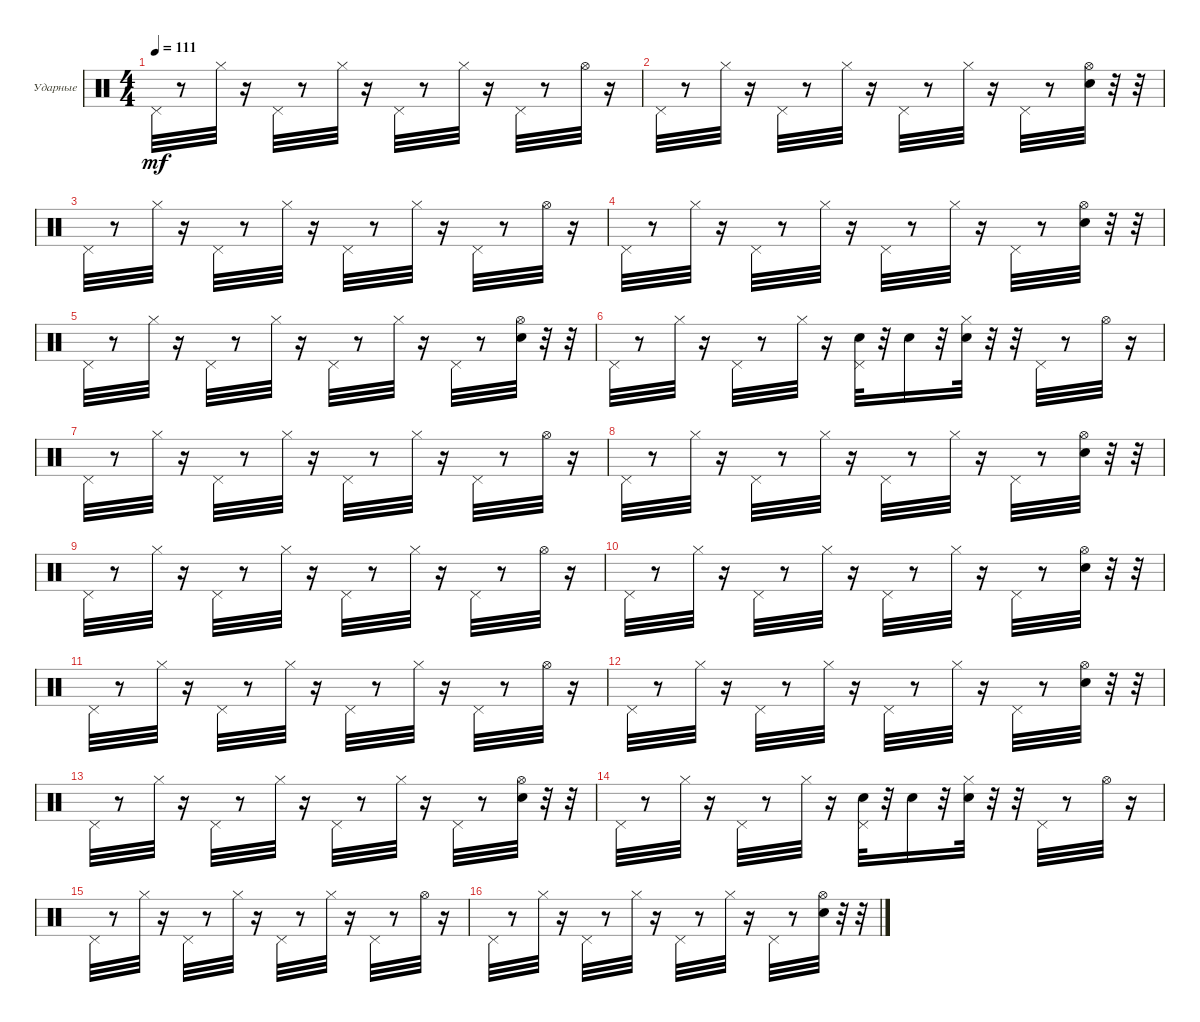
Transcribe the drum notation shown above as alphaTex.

\bracketExtendMode groupsimilarinstruments
\firstSystemTrackNameOrientation horizontal
\otherSystemsTrackNameOrientation horizontal
\track ("Ударные" "Ударные") {instrument percussion}
\staff {score}
\articulation defaults
\ts (4 4)
\tempo 111
\clef neutral
\ks c "Pedal Hi-Hat (hit)".32{dy mf}
r.8 "Hi-Hat (closed)".32 r.16 "Pedal Hi-Hat (hit)".32 r.8 "Hi-Hat (closed)".32 r.16 "Pedal Hi-Hat (hit)".32 r.8 "Hi-Hat (closed)".32 r.16 "Pedal Hi-Hat (hit)".32 r.8 "Hi-Hat (open)".32 r.16 |
"Pedal Hi-Hat (hit)".32 r.8 "Hi-Hat (closed)".32 r.16 "Pedal Hi-Hat (hit)".32 r.8 "Hi-Hat (closed)".32 r.16 "Pedal Hi-Hat (hit)".32 r.8 "Hi-Hat (closed)".32 r.16 "Pedal Hi-Hat (hit)".32 r.8 ("Hi-Hat (open)" "Snare (hit) 2").32 r.32 r.32 |
"Pedal Hi-Hat (hit)".32 r.8 "Hi-Hat (closed)".32 r.16 "Pedal Hi-Hat (hit)".32 r.8 "Hi-Hat (closed)".32 r.16 "Pedal Hi-Hat (hit)".32 r.8 "Hi-Hat (closed)".32 r.16 "Pedal Hi-Hat (hit)".32 r.8 "Hi-Hat (open)".32 r.16 |
"Pedal Hi-Hat (hit)".32 r.8 "Hi-Hat (closed)".32 r.16 "Pedal Hi-Hat (hit)".32 r.8 "Hi-Hat (closed)".32 r.16 "Pedal Hi-Hat (hit)".32 r.8 "Hi-Hat (closed)".32 r.16 "Pedal Hi-Hat (hit)".32 r.8 ("Snare (hit) 2" "Hi-Hat (open)").32 r.32 r.32 |
"Pedal Hi-Hat (hit)".32 r.8 "Hi-Hat (closed)".32 r.16 "Pedal Hi-Hat (hit)".32 r.8 "Hi-Hat (closed)".32 r.16 "Pedal Hi-Hat (hit)".32 r.8 "Hi-Hat (closed)".32 r.16 "Pedal Hi-Hat (hit)".32 r.8 ("Snare (hit) 2" "Hi-Hat (open)").32 r.32 r.32 |
"Pedal Hi-Hat (hit)".32 r.8 "Hi-Hat (closed)".32 r.16 "Pedal Hi-Hat (hit)".32 r.8 "Hi-Hat (closed)".32 r.16 ("Snare (hit) 2" "Pedal Hi-Hat (hit)").32 r.32 "Snare (hit) 2".16 r.32 ("Snare (hit) 2" "Hi-Hat (closed)").32 r.32 r.32 "Pedal Hi-Hat (hit)".32 r.8 "Hi-Hat (open)".32 r.16 |
"Pedal Hi-Hat (hit)".32 r.8 "Hi-Hat (closed)".32 r.16 "Pedal Hi-Hat (hit)".32 r.8 "Hi-Hat (closed)".32 r.16 "Pedal Hi-Hat (hit)".32 r.8 "Hi-Hat (closed)".32 r.16 "Pedal Hi-Hat (hit)".32 r.8 "Hi-Hat (open)".32 r.16 |
"Pedal Hi-Hat (hit)".32 r.8 "Hi-Hat (closed)".32 r.16 "Pedal Hi-Hat (hit)".32 r.8 "Hi-Hat (closed)".32 r.16 "Pedal Hi-Hat (hit)".32 r.8 "Hi-Hat (closed)".32 r.16 "Pedal Hi-Hat (hit)".32 r.8 ("Hi-Hat (open)" "Snare (hit) 2").32 r.32 r.32 |
"Pedal Hi-Hat (hit)".32 r.8 "Hi-Hat (closed)".32 r.16 "Pedal Hi-Hat (hit)".32 r.8 "Hi-Hat (closed)".32 r.16 "Pedal Hi-Hat (hit)".32 r.8 "Hi-Hat (closed)".32 r.16 "Pedal Hi-Hat (hit)".32 r.8 "Hi-Hat (open)".32 r.16 |
"Pedal Hi-Hat (hit)".32 r.8 "Hi-Hat (closed)".32 r.16 "Pedal Hi-Hat (hit)".32 r.8 "Hi-Hat (closed)".32 r.16 "Pedal Hi-Hat (hit)".32 r.8 "Hi-Hat (closed)".32 r.16 "Pedal Hi-Hat (hit)".32 r.8 ("Hi-Hat (open)" "Snare (hit) 2").32 r.32 r.32 |
"Pedal Hi-Hat (hit)".32 r.8 "Hi-Hat (closed)".32 r.16 "Pedal Hi-Hat (hit)".32 r.8 "Hi-Hat (closed)".32 r.16 "Pedal Hi-Hat (hit)".32 r.8 "Hi-Hat (closed)".32 r.16 "Pedal Hi-Hat (hit)".32 r.8 "Hi-Hat (open)".32 r.16 |
"Pedal Hi-Hat (hit)".32 r.8 "Hi-Hat (closed)".32 r.16 "Pedal Hi-Hat (hit)".32 r.8 "Hi-Hat (closed)".32 r.16 "Pedal Hi-Hat (hit)".32 r.8 "Hi-Hat (closed)".32 r.16 "Pedal Hi-Hat (hit)".32 r.8 ("Snare (hit) 2" "Hi-Hat (open)").32 r.32 r.32 |
"Pedal Hi-Hat (hit)".32 r.8 "Hi-Hat (closed)".32 r.16 "Pedal Hi-Hat (hit)".32 r.8 "Hi-Hat (closed)".32 r.16 "Pedal Hi-Hat (hit)".32 r.8 "Hi-Hat (closed)".32 r.16 "Pedal Hi-Hat (hit)".32 r.8 ("Snare (hit) 2" "Hi-Hat (open)").32 r.32 r.32 |
"Pedal Hi-Hat (hit)".32 r.8 "Hi-Hat (closed)".32 r.16 "Pedal Hi-Hat (hit)".32 r.8 "Hi-Hat (closed)".32 r.16 ("Snare (hit) 2" "Pedal Hi-Hat (hit)").32 r.32 "Snare (hit) 2".16 r.32 ("Snare (hit) 2" "Hi-Hat (closed)").32 r.32 r.32 "Pedal Hi-Hat (hit)".32 r.8 "Hi-Hat (open)".32 r.16 |
"Pedal Hi-Hat (hit)".32 r.8 "Hi-Hat (closed)".32 r.16 "Pedal Hi-Hat (hit)".32 r.8 "Hi-Hat (closed)".32 r.16 "Pedal Hi-Hat (hit)".32 r.8 "Hi-Hat (closed)".32 r.16 "Pedal Hi-Hat (hit)".32 r.8 "Hi-Hat (open)".32 r.16 |
"Pedal Hi-Hat (hit)".32 r.8 "Hi-Hat (closed)".32 r.16 "Pedal Hi-Hat (hit)".32 r.8 "Hi-Hat (closed)".32 r.16 "Pedal Hi-Hat (hit)".32 r.8 "Hi-Hat (closed)".32 r.16 "Pedal Hi-Hat (hit)".32 r.8 ("Hi-Hat (open)" "Snare (hit) 2").32 r.32 r.32
